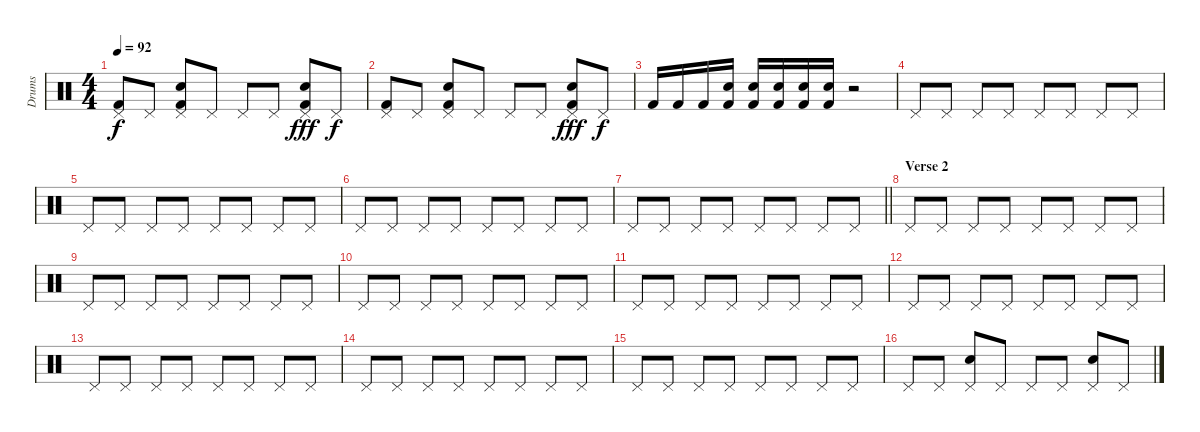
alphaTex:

\track ("Drums" "Drums") {instrument percussion}
\staff {score}
\articulation defaults
\ts (4 4)
\tempo 92
\clef neutral
\ks c
("Pedal Hi-Hat (hit)" "Kick (hit) 2").8{dy f} "Pedal Hi-Hat (hit)".8 ("Pedal Hi-Hat (hit)" "Kick (hit) 2" "Snare (hit) 2").8 "Pedal Hi-Hat (hit)".8 "Pedal Hi-Hat (hit)".8 "Pedal Hi-Hat (hit)".8 ("Pedal Hi-Hat (hit)" "Snare (hit) 2" "Kick (hit) 2").8{dy fff} "Pedal Hi-Hat (hit)".8{dy f} |
("Pedal Hi-Hat (hit)" "Kick (hit) 2").8 "Pedal Hi-Hat (hit)".8 ("Pedal Hi-Hat (hit)" "Kick (hit) 2" "Snare (hit) 2").8 "Pedal Hi-Hat (hit)".8 "Pedal Hi-Hat (hit)".8 "Pedal Hi-Hat (hit)".8 ("Pedal Hi-Hat (hit)" "Snare (hit) 2" "Kick (hit) 2").8{dy fff} "Pedal Hi-Hat (hit)".8{dy f} |
"Kick (hit) 2".16 "Kick (hit) 2".16 "Kick (hit) 2".16 ("Snare (hit) 2" "Kick (hit) 2").16 ("Snare (hit) 2" "Kick (hit) 2").16 ("Snare (hit) 2" "Kick (hit) 2").16 ("Snare (hit) 2" "Kick (hit) 2").16 ("Snare (hit) 2" "Kick (hit) 2").16 r.2 |
"Pedal Hi-Hat (hit)".8 "Pedal Hi-Hat (hit)".8 "Pedal Hi-Hat (hit)".8 "Pedal Hi-Hat (hit)".8 "Pedal Hi-Hat (hit)".8 "Pedal Hi-Hat (hit)".8 "Pedal Hi-Hat (hit)".8 "Pedal Hi-Hat (hit)".8 |
"Pedal Hi-Hat (hit)".8 "Pedal Hi-Hat (hit)".8 "Pedal Hi-Hat (hit)".8 "Pedal Hi-Hat (hit)".8 "Pedal Hi-Hat (hit)".8 "Pedal Hi-Hat (hit)".8 "Pedal Hi-Hat (hit)".8 "Pedal Hi-Hat (hit)".8 |
"Pedal Hi-Hat (hit)".8 "Pedal Hi-Hat (hit)".8 "Pedal Hi-Hat (hit)".8 "Pedal Hi-Hat (hit)".8 "Pedal Hi-Hat (hit)".8 "Pedal Hi-Hat (hit)".8 "Pedal Hi-Hat (hit)".8 "Pedal Hi-Hat (hit)".8 |
\barLineRight lightlight "Pedal Hi-Hat (hit)".8 "Pedal Hi-Hat (hit)".8 "Pedal Hi-Hat (hit)".8 "Pedal Hi-Hat (hit)".8 "Pedal Hi-Hat (hit)".8 "Pedal Hi-Hat (hit)".8 "Pedal Hi-Hat (hit)".8 "Pedal Hi-Hat (hit)".8
|
\section ("" "Verse 2")
"Pedal Hi-Hat (hit)".8 "Pedal Hi-Hat (hit)".8 "Pedal Hi-Hat (hit)".8 "Pedal Hi-Hat (hit)".8 "Pedal Hi-Hat (hit)".8 "Pedal Hi-Hat (hit)".8 "Pedal Hi-Hat (hit)".8 "Pedal Hi-Hat (hit)".8 |
"Pedal Hi-Hat (hit)".8 "Pedal Hi-Hat (hit)".8 "Pedal Hi-Hat (hit)".8 "Pedal Hi-Hat (hit)".8 "Pedal Hi-Hat (hit)".8 "Pedal Hi-Hat (hit)".8 "Pedal Hi-Hat (hit)".8 "Pedal Hi-Hat (hit)".8 |
"Pedal Hi-Hat (hit)".8 "Pedal Hi-Hat (hit)".8 "Pedal Hi-Hat (hit)".8 "Pedal Hi-Hat (hit)".8 "Pedal Hi-Hat (hit)".8 "Pedal Hi-Hat (hit)".8 "Pedal Hi-Hat (hit)".8 "Pedal Hi-Hat (hit)".8 |
"Pedal Hi-Hat (hit)".8 "Pedal Hi-Hat (hit)".8 "Pedal Hi-Hat (hit)".8 "Pedal Hi-Hat (hit)".8 "Pedal Hi-Hat (hit)".8 "Pedal Hi-Hat (hit)".8 "Pedal Hi-Hat (hit)".8 "Pedal Hi-Hat (hit)".8 |
"Pedal Hi-Hat (hit)".8 "Pedal Hi-Hat (hit)".8 "Pedal Hi-Hat (hit)".8 "Pedal Hi-Hat (hit)".8 "Pedal Hi-Hat (hit)".8 "Pedal Hi-Hat (hit)".8 "Pedal Hi-Hat (hit)".8 "Pedal Hi-Hat (hit)".8 |
"Pedal Hi-Hat (hit)".8 "Pedal Hi-Hat (hit)".8 "Pedal Hi-Hat (hit)".8 "Pedal Hi-Hat (hit)".8 "Pedal Hi-Hat (hit)".8 "Pedal Hi-Hat (hit)".8 "Pedal Hi-Hat (hit)".8 "Pedal Hi-Hat (hit)".8 |
"Pedal Hi-Hat (hit)".8 "Pedal Hi-Hat (hit)".8 "Pedal Hi-Hat (hit)".8 "Pedal Hi-Hat (hit)".8 "Pedal Hi-Hat (hit)".8 "Pedal Hi-Hat (hit)".8 "Pedal Hi-Hat (hit)".8 "Pedal Hi-Hat (hit)".8 |
"Pedal Hi-Hat (hit)".8 "Pedal Hi-Hat (hit)".8 "Pedal Hi-Hat (hit)".8 "Pedal Hi-Hat (hit)".8 "Pedal Hi-Hat (hit)".8 "Pedal Hi-Hat (hit)".8 "Pedal Hi-Hat (hit)".8 "Pedal Hi-Hat (hit)".8 |
"Pedal Hi-Hat (hit)".8 "Pedal Hi-Hat (hit)".8 ("Electric Snare (hit)" "Pedal Hi-Hat (hit)").8 "Pedal Hi-Hat (hit)".8 "Pedal Hi-Hat (hit)".8 "Pedal Hi-Hat (hit)".8 ("Electric Snare (hit)" "Pedal Hi-Hat (hit)").8 "Pedal Hi-Hat (hit)".8
